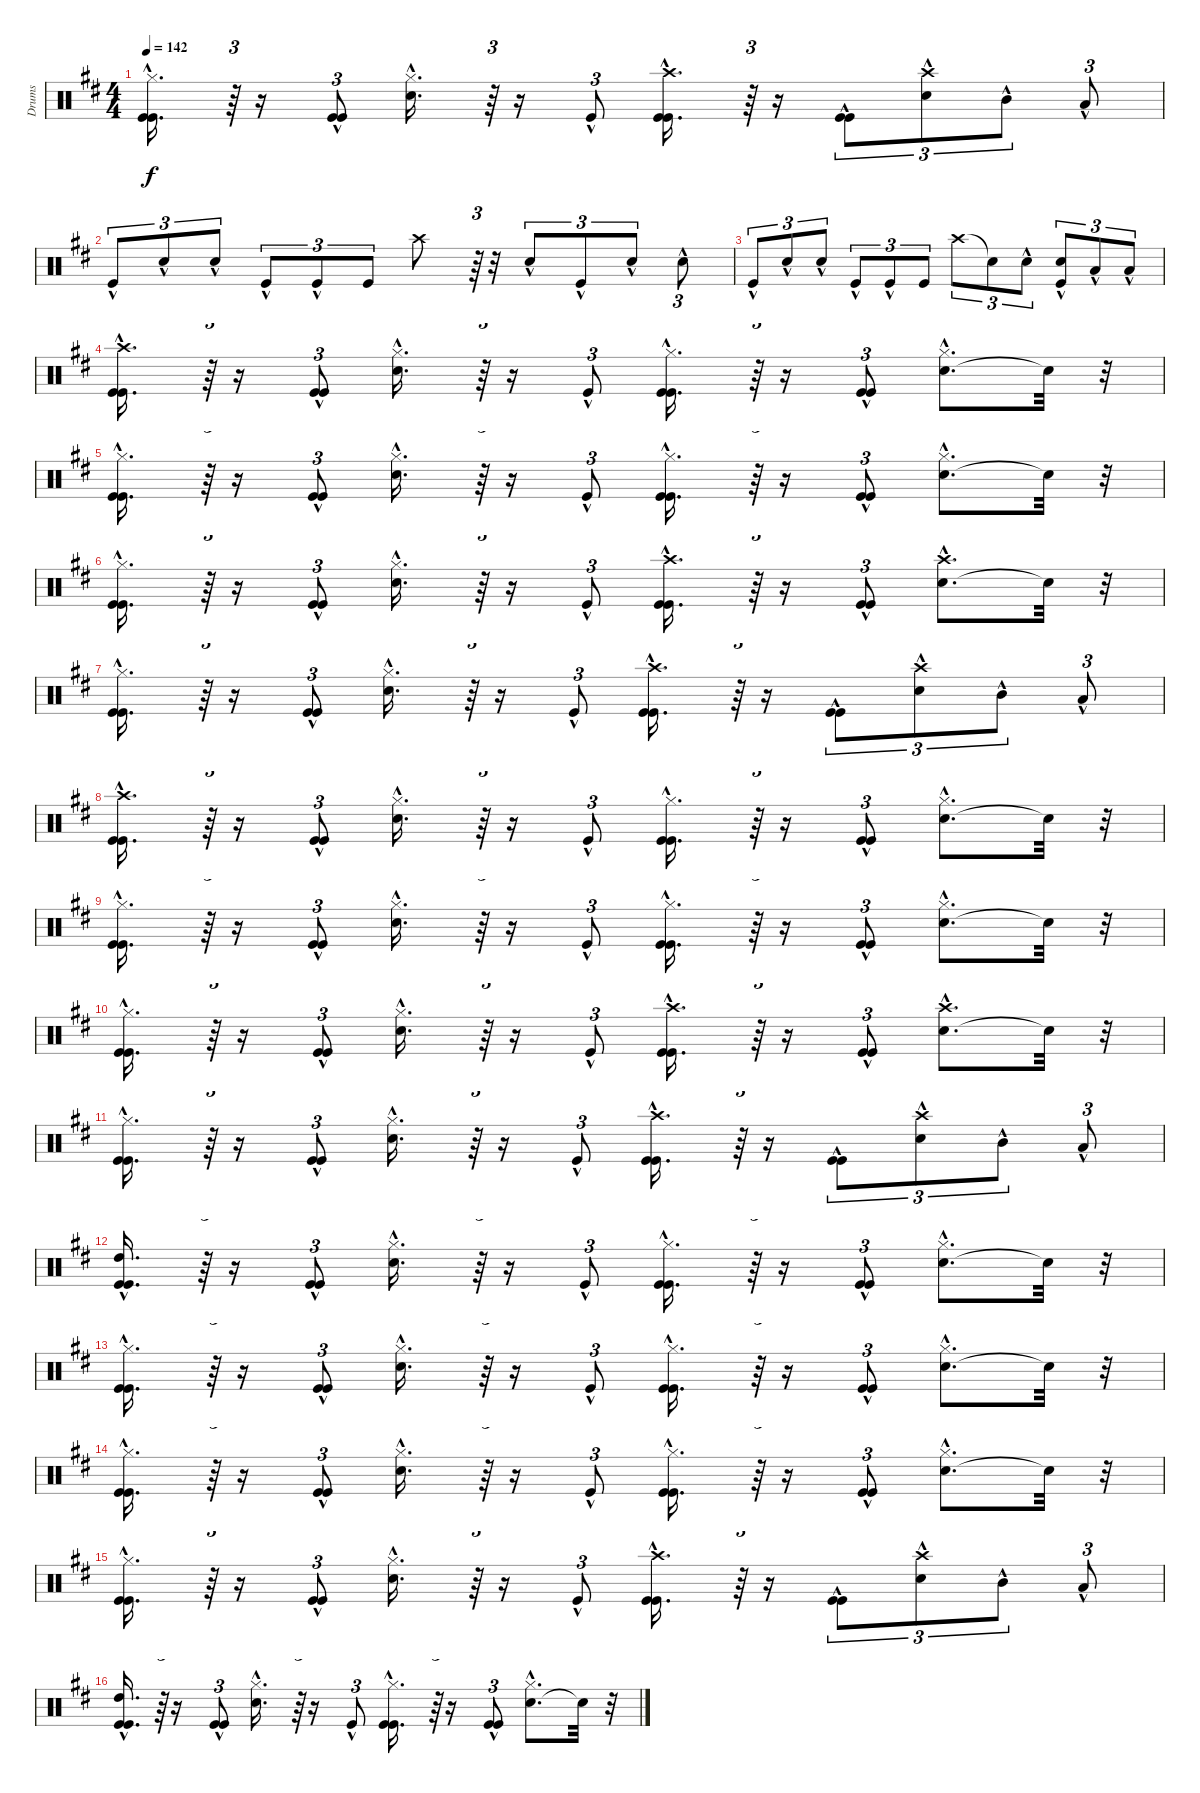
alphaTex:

\track ("Drums" "Drums") {instrument percussion}
\staff {score}
\articulation defaults
\ts (4 4)
\tempo 142
\clef neutral
\ks bminor
("Kick (hit)"{hac} "Kick (hit)"{hac} "Hi-Hat (closed)"{hac}).16{d dy f} r.64{tu (3 2)} r.16 ("Kick (hit)"{hac} "Kick (hit)"{hac}).8{tu (3 2)} ("Snare (hit) 2"{hac} "Hi-Hat (closed)"{hac}).16{d} r.64{tu (3 2)} r.16 "Kick (hit)"{hac}.8{tu (3 2)} ("Kick (hit)"{hac} "Kick (hit)"{hac} "Crash high (hit)"{hac}).16{d} r.64{tu (3 2)} r.16 ("Kick (hit)"{hac} "Kick (hit)"{hac}).8{tu (3 2)} ("Snare (hit) 2"{hac} "Crash high (hit)"{hac}).8{tu (3 2)} "Mid Tom (hit)"{hac}.8{tu (3 2)} "Low Tom (hit)"{hac}.8{tu (3 2)} |
"Kick (hit)"{hac}.8{tu (3 2)} "Snare (hit) 2"{hac}.8{tu (3 2)} "Snare (hit) 2"{hac}.8{tu (3 2)} "Kick (hit)"{hac}.8{tu (3 2)} "Kick (hit)"{hac}.8{tu (3 2)} "Kick (hit)".8{tu (3 2)} "Crash high (hit)".8 r.64{tu (3 2)} r.32 "Snare (hit) 2"{hac}.8{tu (3 2)} "Kick (hit)"{hac}.8{tu (3 2)} "Snare (hit) 2"{hac}.8{tu (3 2)} "Snare (hit) 2"{hac}.8{tu (3 2)} |
"Kick (hit)"{hac}.8{tu (3 2)} "Snare (hit) 2"{hac}.8{tu (3 2)} "Snare (hit) 2"{hac}.8{tu (3 2)} "Kick (hit)"{hac}.8{tu (3 2)} "Kick (hit)"{hac}.8{tu (3 2)} "Kick (hit)".8{tu (3 2)} "Crash high (hit)".8{tu (3 2)} "Snare (hit)"{t}.8{tu (3 2)} "Snare (hit) 2"{hac}.8{tu (3 2)} ("Kick (hit)"{hac} "Snare (hit) 2"{hac}).8{tu (3 2)} "Low Floor Tom (hit)"{hac}.8{tu (3 2)} "Low Floor Tom (hit)"{hac}.8{tu (3 2)} |
("Kick (hit)"{hac} "Kick (hit)"{hac} "Crash high (hit)"{hac}).16{d} r.64{tu (3 2)} r.16 ("Kick (hit)"{hac} "Kick (hit)"{hac}).8{tu (3 2)} ("Snare (hit) 2"{hac} "Hi-Hat (closed)"{hac}).16{d} r.64{tu (3 2)} r.16 "Kick (hit)"{hac}.8{tu (3 2)} ("Kick (hit)"{hac} "Kick (hit)"{hac} "Hi-Hat (closed)"{hac}).16{d} r.64{tu (3 2)} r.16 ("Kick (hit)"{hac} "Kick (hit)"{hac}).8{tu (3 2)} ("Snare (hit) 2"{hac} "Hi-Hat (closed)"{hac}).8{d} "Snare (hit)"{t}.32 r.32 |
("Kick (hit)"{hac} "Kick (hit)"{hac} "Hi-Hat (closed)"{hac}).16{d} r.64{tu (3 2)} r.16 ("Kick (hit)"{hac} "Kick (hit)"{hac}).8{tu (3 2)} ("Snare (hit) 2"{hac} "Hi-Hat (closed)"{hac}).16{d} r.64{tu (3 2)} r.16 "Kick (hit)"{hac}.8{tu (3 2)} ("Kick (hit)"{hac} "Kick (hit)"{hac} "Hi-Hat (closed)"{hac}).16{d} r.64{tu (3 2)} r.16 ("Kick (hit)"{hac} "Kick (hit)"{hac}).8{tu (3 2)} ("Snare (hit) 2"{hac} "Hi-Hat (closed)"{hac}).8{d} "Snare (hit)"{t}.32 r.32 |
("Kick (hit)"{hac} "Kick (hit)"{hac} "Hi-Hat (closed)"{hac}).16{d} r.64{tu (3 2)} r.16 ("Kick (hit)"{hac} "Kick (hit)"{hac}).8{tu (3 2)} ("Snare (hit) 2"{hac} "Hi-Hat (closed)"{hac}).16{d} r.64{tu (3 2)} r.16 "Kick (hit)"{hac}.8{tu (3 2)} ("Kick (hit)"{hac} "Kick (hit)"{hac} "Crash high (hit)"{hac}).16{d} r.64{tu (3 2)} r.16 ("Kick (hit)"{hac} "Kick (hit)"{hac}).8{tu (3 2)} ("Snare (hit) 2"{hac} "Crash high (hit)"{hac}).8{d} "Snare (hit)"{t}.32 r.32 |
("Kick (hit)"{hac} "Kick (hit)"{hac} "Hi-Hat (closed)"{hac}).16{d} r.64{tu (3 2)} r.16 ("Kick (hit)"{hac} "Kick (hit)"{hac}).8{tu (3 2)} ("Snare (hit) 2"{hac} "Hi-Hat (closed)"{hac}).16{d} r.64{tu (3 2)} r.16 "Kick (hit)"{hac}.8{tu (3 2)} ("Kick (hit)"{hac} "Kick (hit)"{hac} "Crash high (hit)"{hac}).16{d} r.64{tu (3 2)} r.16 ("Kick (hit)"{hac} "Kick (hit)"{hac}).8{tu (3 2)} ("Snare (hit) 2"{hac} "Crash high (hit)"{hac}).8{tu (3 2)} "Mid Tom (hit)"{hac}.8{tu (3 2)} "Low Tom (hit)"{hac}.8{tu (3 2)} |
("Kick (hit)"{hac} "Kick (hit)"{hac} "Crash high (hit)"{hac}).16{d} r.64{tu (3 2)} r.16 ("Kick (hit)"{hac} "Kick (hit)"{hac}).8{tu (3 2)} ("Snare (hit) 2"{hac} "Hi-Hat (closed)"{hac}).16{d} r.64{tu (3 2)} r.16 "Kick (hit)"{hac}.8{tu (3 2)} ("Kick (hit)"{hac} "Kick (hit)"{hac} "Hi-Hat (closed)"{hac}).16{d} r.64{tu (3 2)} r.16 ("Kick (hit)"{hac} "Kick (hit)"{hac}).8{tu (3 2)} ("Snare (hit) 2"{hac} "Hi-Hat (closed)"{hac}).8{d} "Snare (hit)"{t}.32 r.32 |
("Kick (hit)"{hac} "Kick (hit)"{hac} "Hi-Hat (closed)"{hac}).16{d} r.64{tu (3 2)} r.16 ("Kick (hit)"{hac} "Kick (hit)"{hac}).8{tu (3 2)} ("Snare (hit) 2"{hac} "Hi-Hat (closed)"{hac}).16{d} r.64{tu (3 2)} r.16 "Kick (hit)"{hac}.8{tu (3 2)} ("Kick (hit)"{hac} "Kick (hit)"{hac} "Hi-Hat (closed)"{hac}).16{d} r.64{tu (3 2)} r.16 ("Kick (hit)"{hac} "Kick (hit)"{hac}).8{tu (3 2)} ("Snare (hit) 2"{hac} "Hi-Hat (closed)"{hac}).8{d} "Snare (hit)"{t}.32 r.32 |
("Kick (hit)"{hac} "Kick (hit)"{hac} "Hi-Hat (closed)"{hac}).16{d} r.64{tu (3 2)} r.16 ("Kick (hit)"{hac} "Kick (hit)"{hac}).8{tu (3 2)} ("Snare (hit) 2"{hac} "Hi-Hat (closed)"{hac}).16{d} r.64{tu (3 2)} r.16 "Kick (hit)"{hac}.8{tu (3 2)} ("Kick (hit)"{hac} "Kick (hit)"{hac} "Crash high (hit)"{hac}).16{d} r.64{tu (3 2)} r.16 ("Kick (hit)"{hac} "Kick (hit)"{hac}).8{tu (3 2)} ("Snare (hit) 2"{hac} "Crash high (hit)"{hac}).8{d} "Snare (hit)"{t}.32 r.32 |
("Kick (hit)"{hac} "Kick (hit)"{hac} "Hi-Hat (closed)"{hac}).16{d} r.64{tu (3 2)} r.16 ("Kick (hit)"{hac} "Kick (hit)"{hac}).8{tu (3 2)} ("Snare (hit) 2"{hac} "Hi-Hat (closed)"{hac}).16{d} r.64{tu (3 2)} r.16 "Kick (hit)"{hac}.8{tu (3 2)} ("Kick (hit)"{hac} "Kick (hit)"{hac} "Crash high (hit)"{hac}).16{d} r.64{tu (3 2)} r.16 ("Kick (hit)"{hac} "Kick (hit)"{hac}).8{tu (3 2)} ("Snare (hit) 2"{hac} "Crash high (hit)"{hac}).8{tu (3 2)} "Mid Tom (hit)"{hac}.8{tu (3 2)} "Low Tom (hit)"{hac}.8{tu (3 2)} |
("Kick (hit)"{hac} "Kick (hit)"{hac} "High Tom (hit)"{hac}).16{d} r.64{tu (3 2)} r.16 ("Kick (hit)"{hac} "Kick (hit)"{hac}).8{tu (3 2)} ("Snare (hit) 2"{hac} "Hi-Hat (closed)"{hac}).16{d} r.64{tu (3 2)} r.16 "Kick (hit)"{hac}.8{tu (3 2)} ("Kick (hit)"{hac} "Kick (hit)"{hac} "Hi-Hat (closed)"{hac}).16{d} r.64{tu (3 2)} r.16 ("Kick (hit)"{hac} "Kick (hit)"{hac}).8{tu (3 2)} ("Snare (hit) 2"{hac} "Hi-Hat (closed)"{hac}).8{d} "Snare (hit)"{t}.32 r.32 |
("Kick (hit)"{hac} "Kick (hit)"{hac} "Hi-Hat (closed)"{hac}).16{d} r.64{tu (3 2)} r.16 ("Kick (hit)"{hac} "Kick (hit)"{hac}).8{tu (3 2)} ("Snare (hit) 2"{hac} "Hi-Hat (closed)"{hac}).16{d} r.64{tu (3 2)} r.16 "Kick (hit)"{hac}.8{tu (3 2)} ("Kick (hit)"{hac} "Kick (hit)"{hac} "Hi-Hat (closed)"{hac}).16{d} r.64{tu (3 2)} r.16 ("Kick (hit)"{hac} "Kick (hit)"{hac}).8{tu (3 2)} ("Snare (hit) 2"{hac} "Hi-Hat (closed)"{hac}).8{d} "Snare (hit)"{t}.32 r.32 |
("Kick (hit)"{hac} "Kick (hit)"{hac} "Hi-Hat (closed)"{hac}).16{d} r.64{tu (3 2)} r.16 ("Kick (hit)"{hac} "Kick (hit)"{hac}).8{tu (3 2)} ("Snare (hit) 2"{hac} "Hi-Hat (closed)"{hac}).16{d} r.64{tu (3 2)} r.16 "Kick (hit)"{hac}.8{tu (3 2)} ("Kick (hit)"{hac} "Kick (hit)"{hac} "Hi-Hat (closed)"{hac}).16{d} r.64{tu (3 2)} r.16 ("Kick (hit)"{hac} "Kick (hit)"{hac}).8{tu (3 2)} ("Snare (hit) 2"{hac} "Hi-Hat (closed)"{hac}).8{d} "Snare (hit)"{t}.32 r.32 |
("Kick (hit)"{hac} "Kick (hit)"{hac} "Hi-Hat (closed)"{hac}).16{d} r.64{tu (3 2)} r.16 ("Kick (hit)"{hac} "Kick (hit)"{hac}).8{tu (3 2)} ("Snare (hit) 2"{hac} "Hi-Hat (closed)"{hac}).16{d} r.64{tu (3 2)} r.16 "Kick (hit)"{hac}.8{tu (3 2)} ("Kick (hit)"{hac} "Kick (hit)"{hac} "Crash high (hit)"{hac}).16{d} r.64{tu (3 2)} r.16 ("Kick (hit)"{hac} "Kick (hit)"{hac}).8{tu (3 2)} ("Snare (hit) 2"{hac} "Crash high (hit)"{hac}).8{tu (3 2)} "Mid Tom (hit)"{hac}.8{tu (3 2)} "Low Tom (hit)"{hac}.8{tu (3 2)} |
("Kick (hit)"{hac} "Kick (hit)"{hac} "High Tom (hit)"{hac}).16{d} r.64{tu (3 2)} r.16 ("Kick (hit)"{hac} "Kick (hit)"{hac}).8{tu (3 2)} ("Snare (hit) 2"{hac} "Hi-Hat (closed)"{hac}).16{d} r.64{tu (3 2)} r.16 "Kick (hit)"{hac}.8{tu (3 2)} ("Kick (hit)"{hac} "Kick (hit)"{hac} "Hi-Hat (closed)"{hac}).16{d} r.64{tu (3 2)} r.16 ("Kick (hit)"{hac} "Kick (hit)"{hac}).8{tu (3 2)} ("Snare (hit) 2"{hac} "Hi-Hat (closed)"{hac}).8{d} "Snare (hit)"{t}.32 r.32
